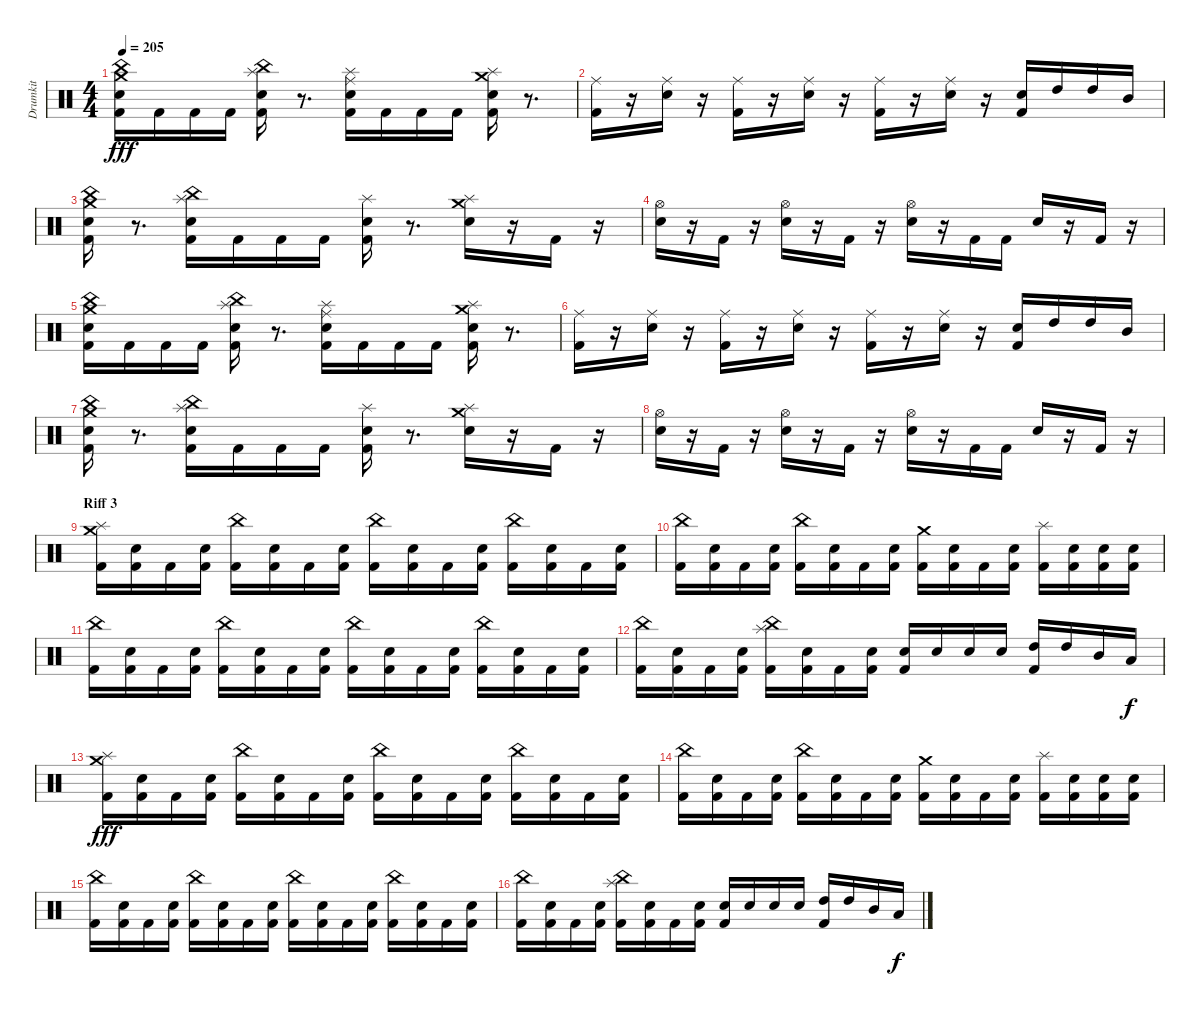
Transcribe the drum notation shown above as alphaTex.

\track ("Drumkit" "Drumkit") {instrument percussion}
\staff {score}
\articulation defaults
\ts (4 4)
\tempo 205
\clef neutral
\ks c
("Kick (hit) 2" "Snare (hit) 2" "Crash medium (hit)" "China (hit)").16{dy fff} "Kick (hit) 2".16 "Kick (hit) 2".16 "Kick (hit) 2".16 ("Kick (hit) 2" "Snare (hit) 2" "Splash (hit)" "China (hit)").16 r.8{d} ("Kick (hit) 2" "Snare (hit) 2" "Ride (middle)" "Splash (hit)").16 "Kick (hit) 2".16 "Kick (hit) 2".16 "Kick (hit) 2".16 ("Kick (hit) 2" "Snare (hit) 2" "Splash (hit)" "Crash medium (hit)").16 r.8{d} |
("Kick (hit) 2" "Ride (middle)").16 r.16 ("Snare (hit) 2" "Ride (middle)").16 r.16 ("Kick (hit) 2" "Ride (middle)").16 r.16 ("Snare (hit) 2" "Ride (middle)").16 r.16 ("Kick (hit) 2" "Ride (middle)").16 r.16 ("Snare (hit) 2" "Ride (middle)").16 r.16 ("Kick (hit) 2" "Snare (hit) 2").16 "High Tom (hit)".16 "High Tom (hit)".16 "Mid Tom (hit)".16 |
("Kick (hit) 2" "Snare (hit) 2" "Crash medium (hit)" "China (hit)").16 r.8{d} ("Kick (hit) 2" "Snare (hit) 2" "Splash (hit)" "China (hit)").16 "Kick (hit) 2".16 "Kick (hit) 2".16 "Kick (hit) 2".16 ("Kick (hit) 2" "Snare (hit) 2" "Splash (hit)").16 r.8{d} ("Snare (hit) 2" "Splash (hit)" "Crash medium (hit)").16 r.16 "Kick (hit) 2".16 r.16 |
("Snare (hit) 2" "Hi-Hat (open)").16 r.16 "Kick (hit) 2".16 r.16 ("Snare (hit) 2" "Hi-Hat (open)").16 r.16 "Kick (hit) 2".16 r.16 ("Snare (hit) 2" "Hi-Hat (open)").16 r.16 "Kick (hit) 2".16 "Kick (hit) 2".16 "Snare (hit) 2".16 r.16 "Kick (hit) 2".16 r.16 |
("Kick (hit) 2" "Snare (hit) 2" "Crash medium (hit)" "China (hit)").16 "Kick (hit) 2".16 "Kick (hit) 2".16 "Kick (hit) 2".16 ("Kick (hit) 2" "Snare (hit) 2" "Splash (hit)" "China (hit)").16 r.8{d} ("Kick (hit) 2" "Snare (hit) 2" "Ride (middle)" "Splash (hit)").16 "Kick (hit) 2".16 "Kick (hit) 2".16 "Kick (hit) 2".16 ("Kick (hit) 2" "Snare (hit) 2" "Splash (hit)" "Crash medium (hit)").16 r.8{d} |
("Kick (hit) 2" "Ride (middle)").16 r.16 ("Snare (hit) 2" "Ride (middle)").16 r.16 ("Kick (hit) 2" "Ride (middle)").16 r.16 ("Snare (hit) 2" "Ride (middle)").16 r.16 ("Kick (hit) 2" "Ride (middle)").16 r.16 ("Snare (hit) 2" "Ride (middle)").16 r.16 ("Kick (hit) 2" "Snare (hit) 2").16 "High Tom (hit)".16 "High Tom (hit)".16 "Mid Tom (hit)".16 |
("Kick (hit) 2" "Snare (hit) 2" "Crash medium (hit)" "China (hit)").16 r.8{d} ("Kick (hit) 2" "Snare (hit) 2" "Splash (hit)" "China (hit)").16 "Kick (hit) 2".16 "Kick (hit) 2".16 "Kick (hit) 2".16 ("Kick (hit) 2" "Snare (hit) 2" "Splash (hit)").16 r.8{d} ("Snare (hit) 2" "Splash (hit)" "Crash medium (hit)").16 r.16 "Kick (hit) 2".16 r.16 |
("Snare (hit) 2" "Hi-Hat (open)").16 r.16 "Kick (hit) 2".16 r.16 ("Snare (hit) 2" "Hi-Hat (open)").16 r.16 "Kick (hit) 2".16 r.16 ("Snare (hit) 2" "Hi-Hat (open)").16 r.16 "Kick (hit) 2".16 "Kick (hit) 2".16 "Snare (hit) 2".16 r.16 "Kick (hit) 2".16 r.16 |
\section ("" "Riff 3")
("Kick (hit) 2" "Splash (hit)" "Crash medium (hit)").16 ("Kick (hit) 2" "Snare (hit) 2").16 "Kick (hit) 2".16 ("Kick (hit) 2" "Snare (hit) 2").16 ("Kick (hit) 2" "China (hit)").16 ("Kick (hit) 2" "Snare (hit) 2").16 "Kick (hit) 2".16 ("Kick (hit) 2" "Snare (hit) 2").16 ("Kick (hit) 2" "China (hit)").16 ("Kick (hit) 2" "Snare (hit) 2").16 "Kick (hit) 2".16 ("Kick (hit) 2" "Snare (hit) 2").16 ("Kick (hit) 2" "China (hit)").16 ("Kick (hit) 2" "Snare (hit) 2").16 "Kick (hit) 2".16 ("Kick (hit) 2" "Snare (hit) 2").16 |
("Kick (hit) 2" "China (hit)").16 ("Kick (hit) 2" "Snare (hit) 2").16 "Kick (hit) 2".16 ("Kick (hit) 2" "Snare (hit) 2").16 ("Kick (hit) 2" "China (hit)").16 ("Kick (hit) 2" "Snare (hit) 2").16 "Kick (hit) 2".16 ("Kick (hit) 2" "Snare (hit) 2").16 ("Kick (hit) 2" "Crash medium (hit)").16 ("Kick (hit) 2" "Snare (hit) 2").16 "Kick (hit) 2".16 ("Kick (hit) 2" "Snare (hit) 2").16 ("Kick (hit) 2" "Splash (hit)").16 ("Kick (hit) 2" "Snare (hit) 2").16 ("Kick (hit) 2" "Snare (hit) 2").16 ("Kick (hit) 2" "Snare (hit) 2").16 |
("Kick (hit) 2" "China (hit)").16 ("Kick (hit) 2" "Snare (hit) 2").16 "Kick (hit) 2".16 ("Kick (hit) 2" "Snare (hit) 2").16 ("Kick (hit) 2" "China (hit)").16 ("Kick (hit) 2" "Snare (hit) 2").16 "Kick (hit) 2".16 ("Kick (hit) 2" "Snare (hit) 2").16 ("Kick (hit) 2" "China (hit)").16 ("Kick (hit) 2" "Snare (hit) 2").16 "Kick (hit) 2".16 ("Kick (hit) 2" "Snare (hit) 2").16 ("Kick (hit) 2" "China (hit)").16 ("Kick (hit) 2" "Snare (hit) 2").16 "Kick (hit) 2".16 ("Kick (hit) 2" "Snare (hit) 2").16 |
("Kick (hit) 2" "China (hit)").16 ("Kick (hit) 2" "Snare (hit) 2").16 "Kick (hit) 2".16 ("Kick (hit) 2" "Snare (hit) 2").16 ("Kick (hit) 2" "Splash (hit)" "China (hit)").16 ("Kick (hit) 2" "Snare (hit) 2").16 "Kick (hit) 2".16 ("Kick (hit) 2" "Snare (hit) 2").16 ("Kick (hit) 2" "Snare (hit) 2").16 "Snare (hit) 2".16 "Snare (hit) 2".16 "Snare (hit) 2".16 ("Kick (hit) 2" "High Tom (hit)").16 "High Tom (hit)".16 "Mid Tom (hit)".16 "Low Tom (hit)".16{dy f} |
("Kick (hit) 2" "Splash (hit)" "Crash medium (hit)").16{dy fff} ("Kick (hit) 2" "Snare (hit) 2").16 "Kick (hit) 2".16 ("Kick (hit) 2" "Snare (hit) 2").16 ("Kick (hit) 2" "China (hit)").16 ("Kick (hit) 2" "Snare (hit) 2").16 "Kick (hit) 2".16 ("Kick (hit) 2" "Snare (hit) 2").16 ("Kick (hit) 2" "China (hit)").16 ("Kick (hit) 2" "Snare (hit) 2").16 "Kick (hit) 2".16 ("Kick (hit) 2" "Snare (hit) 2").16 ("Kick (hit) 2" "China (hit)").16 ("Kick (hit) 2" "Snare (hit) 2").16 "Kick (hit) 2".16 ("Kick (hit) 2" "Snare (hit) 2").16 |
("Kick (hit) 2" "China (hit)").16 ("Kick (hit) 2" "Snare (hit) 2").16 "Kick (hit) 2".16 ("Kick (hit) 2" "Snare (hit) 2").16 ("Kick (hit) 2" "China (hit)").16 ("Kick (hit) 2" "Snare (hit) 2").16 "Kick (hit) 2".16 ("Kick (hit) 2" "Snare (hit) 2").16 ("Kick (hit) 2" "Crash medium (hit)").16 ("Kick (hit) 2" "Snare (hit) 2").16 "Kick (hit) 2".16 ("Kick (hit) 2" "Snare (hit) 2").16 ("Kick (hit) 2" "Splash (hit)").16 ("Kick (hit) 2" "Snare (hit) 2").16 ("Kick (hit) 2" "Snare (hit) 2").16 ("Kick (hit) 2" "Snare (hit) 2").16 |
("Kick (hit) 2" "China (hit)").16 ("Kick (hit) 2" "Snare (hit) 2").16 "Kick (hit) 2".16 ("Kick (hit) 2" "Snare (hit) 2").16 ("Kick (hit) 2" "China (hit)").16 ("Kick (hit) 2" "Snare (hit) 2").16 "Kick (hit) 2".16 ("Kick (hit) 2" "Snare (hit) 2").16 ("Kick (hit) 2" "China (hit)").16 ("Kick (hit) 2" "Snare (hit) 2").16 "Kick (hit) 2".16 ("Kick (hit) 2" "Snare (hit) 2").16 ("Kick (hit) 2" "China (hit)").16 ("Kick (hit) 2" "Snare (hit) 2").16 "Kick (hit) 2".16 ("Kick (hit) 2" "Snare (hit) 2").16 |
("Kick (hit) 2" "China (hit)").16 ("Kick (hit) 2" "Snare (hit) 2").16 "Kick (hit) 2".16 ("Kick (hit) 2" "Snare (hit) 2").16 ("Kick (hit) 2" "Splash (hit)" "China (hit)").16 ("Kick (hit) 2" "Snare (hit) 2").16 "Kick (hit) 2".16 ("Kick (hit) 2" "Snare (hit) 2").16 ("Kick (hit) 2" "Snare (hit) 2").16 "Snare (hit) 2".16 "Snare (hit) 2".16 "Snare (hit) 2".16 ("Kick (hit) 2" "High Tom (hit)").16 "High Tom (hit)".16 "Mid Tom (hit)".16 "Low Tom (hit)".16{dy f}
